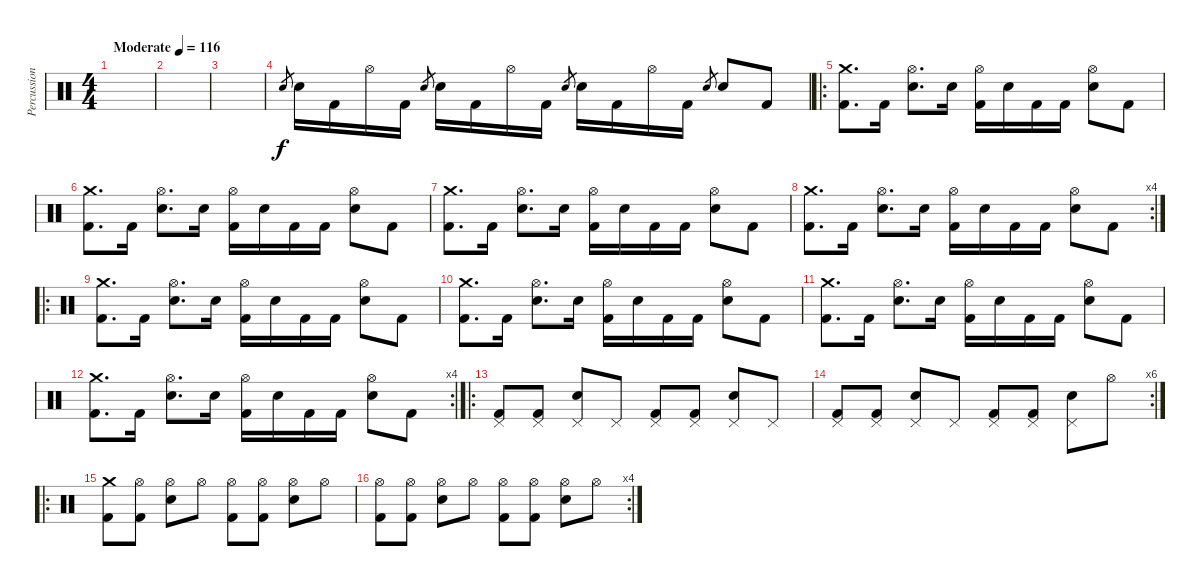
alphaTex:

\track ("Percussion" "Percussion") {instrument percussion}
\staff {score}
\articulation defaults
\ts (4 4)
\tempo (116 "Moderate")
\clef neutral
\ks c
|
|
|
"Electric Snare (hit)".8{gr} "Electric Snare (hit)".16 "Kick (hit) 2".16 "Hi-Hat (open)".16 "Kick (hit) 2".16 "Electric Snare (hit)".8{gr} "Electric Snare (hit)".16 "Kick (hit) 2".16 "Hi-Hat (open)".16 "Kick (hit) 2".16 "Electric Snare (hit)".8{gr} "Electric Snare (hit)".16 "Kick (hit) 2".16 "Hi-Hat (open)".16 "Kick (hit) 2".16 "Electric Snare (hit)".8{gr} "Electric Snare (hit)".8 "Kick (hit) 2".8 |
\ro
("Crash medium (hit)" "Kick (hit) 2").8{d} "Kick (hit) 2".16 ("Hi-Hat (open)" "Electric Snare (hit)").8{d} "Electric Snare (hit)".16 ("Hi-Hat (open)" "Kick (hit) 2").16 "Electric Snare (hit)".16 "Kick (hit) 2".16 "Kick (hit) 2".16 ("Hi-Hat (open)" "Electric Snare (hit)").8 "Kick (hit) 2".8 |
("Crash medium (hit)" "Kick (hit) 2").8{d} "Kick (hit) 2".16 ("Hi-Hat (open)" "Electric Snare (hit)").8{d} "Electric Snare (hit)".16 ("Hi-Hat (open)" "Kick (hit) 2").16 "Electric Snare (hit)".16 "Kick (hit) 2".16 "Kick (hit) 2".16 ("Hi-Hat (open)" "Electric Snare (hit)").8 "Kick (hit) 2".8 |
("Crash medium (hit)" "Kick (hit) 2").8{d} "Kick (hit) 2".16 ("Hi-Hat (open)" "Electric Snare (hit)").8{d} "Electric Snare (hit)".16 ("Hi-Hat (open)" "Kick (hit) 2").16 "Electric Snare (hit)".16 "Kick (hit) 2".16 "Kick (hit) 2".16 ("Hi-Hat (open)" "Electric Snare (hit)").8 "Kick (hit) 2".8 |
\rc 4
("Crash medium (hit)" "Kick (hit) 2").8{d} "Kick (hit) 2".16 ("Hi-Hat (open)" "Electric Snare (hit)").8{d} "Electric Snare (hit)".16 ("Hi-Hat (open)" "Kick (hit) 2").16 "Electric Snare (hit)".16 "Kick (hit) 2".16 "Kick (hit) 2".16 ("Hi-Hat (open)" "Electric Snare (hit)").8 "Kick (hit) 2".8 |
\ro
("Crash medium (hit)" "Kick (hit) 2").8{d} "Kick (hit) 2".16 ("Hi-Hat (open)" "Electric Snare (hit)").8{d} "Electric Snare (hit)".16 ("Hi-Hat (open)" "Kick (hit) 2").16 "Electric Snare (hit)".16 "Kick (hit) 2".16 "Kick (hit) 2".16 ("Hi-Hat (open)" "Electric Snare (hit)").8 "Kick (hit) 2".8 |
("Crash medium (hit)" "Kick (hit) 2").8{d} "Kick (hit) 2".16 ("Hi-Hat (open)" "Electric Snare (hit)").8{d} "Electric Snare (hit)".16 ("Hi-Hat (open)" "Kick (hit) 2").16 "Electric Snare (hit)".16 "Kick (hit) 2".16 "Kick (hit) 2".16 ("Hi-Hat (open)" "Electric Snare (hit)").8 "Kick (hit) 2".8 |
("Crash medium (hit)" "Kick (hit) 2").8{d} "Kick (hit) 2".16 ("Hi-Hat (open)" "Electric Snare (hit)").8{d} "Electric Snare (hit)".16 ("Hi-Hat (open)" "Kick (hit) 2").16 "Electric Snare (hit)".16 "Kick (hit) 2".16 "Kick (hit) 2".16 ("Hi-Hat (open)" "Electric Snare (hit)").8 "Kick (hit) 2".8 |
\rc 4
("Crash medium (hit)" "Kick (hit) 2").8{d} "Kick (hit) 2".16 ("Hi-Hat (open)" "Electric Snare (hit)").8{d} "Electric Snare (hit)".16 ("Hi-Hat (open)" "Kick (hit) 2").16 "Electric Snare (hit)".16 "Kick (hit) 2".16 "Kick (hit) 2".16 ("Hi-Hat (open)" "Electric Snare (hit)").8 "Kick (hit) 2".8 |
\ro
("Pedal Hi-Hat (hit)" "Kick (hit) 2").8 ("Pedal Hi-Hat (hit)" "Kick (hit) 2").8 ("Pedal Hi-Hat (hit)" "Electric Snare (hit)").8 "Pedal Hi-Hat (hit)".8 ("Pedal Hi-Hat (hit)" "Kick (hit) 2").8 ("Pedal Hi-Hat (hit)" "Kick (hit) 2").8 ("Pedal Hi-Hat (hit)" "Electric Snare (hit)").8 "Pedal Hi-Hat (hit)".8 |
\rc 6
("Pedal Hi-Hat (hit)" "Kick (hit) 2").8 ("Pedal Hi-Hat (hit)" "Kick (hit) 2").8 ("Pedal Hi-Hat (hit)" "Electric Snare (hit)").8 "Pedal Hi-Hat (hit)".8 ("Pedal Hi-Hat (hit)" "Kick (hit) 2").8 ("Pedal Hi-Hat (hit)" "Kick (hit) 2").8 ("Pedal Hi-Hat (hit)" "Electric Snare (hit)").8 "Hi-Hat (open)".8 |
\ro
("Crash medium (hit)" "Kick (hit) 2").8 ("Hi-Hat (open)" "Kick (hit) 2").8 ("Hi-Hat (open)" "Electric Snare (hit)").8 "Hi-Hat (open)".8 ("Hi-Hat (open)" "Kick (hit) 2").8 ("Hi-Hat (open)" "Kick (hit) 2").8 ("Hi-Hat (open)" "Electric Snare (hit)").8 "Hi-Hat (open)".8 |
\rc 4
("Hi-Hat (open)" "Kick (hit) 2").8 ("Hi-Hat (open)" "Kick (hit) 2").8 ("Hi-Hat (open)" "Electric Snare (hit)").8 "Hi-Hat (open)".8 ("Hi-Hat (open)" "Kick (hit) 2").8 ("Hi-Hat (open)" "Kick (hit) 2").8 ("Hi-Hat (open)" "Electric Snare (hit)").8 "Hi-Hat (open)".8
